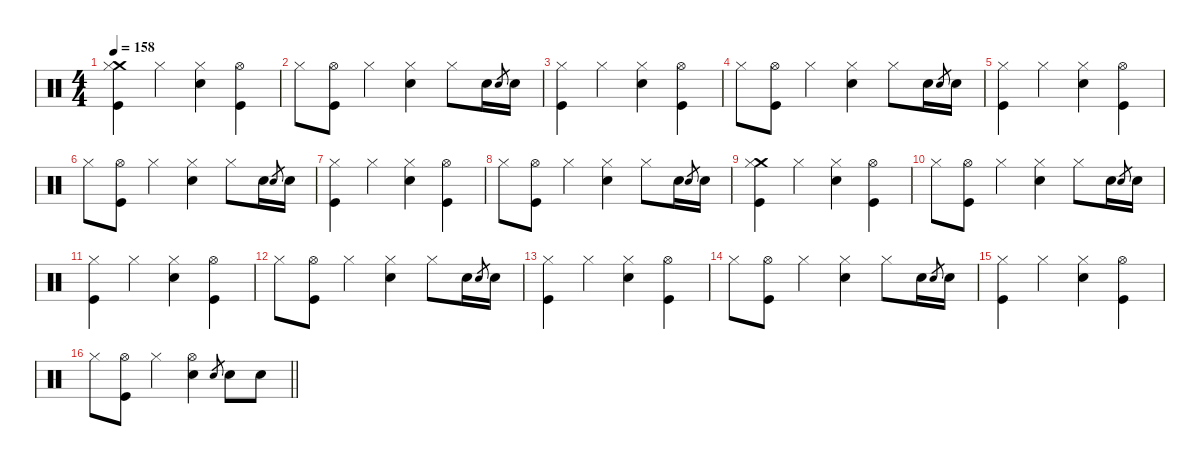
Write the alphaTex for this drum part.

\defaultSystemsLayout 4
\hideDynamics
\bracketExtendMode nobrackets
\singleTrackTrackNamePolicy hidden
\multiTrackTrackNamePolicy hidden
\firstSystemTrackNameMode fullname
\firstSystemTrackNameOrientation horizontal
\otherSystemsTrackNameOrientation horizontal
\track ("Drums" "drm.") {instrument percussion}
\staff {score}
\articulation defaults
\ts (4 4)
\tempo 158
\clef neutral
\ks aminor
("Crash medium (hit)" "Hi-Hat (closed)" "Kick (hit)").4{dy f beam Down} "Hi-Hat (closed)".4{beam Down} ("Hi-Hat (closed)" "Snare (hit) 2").4{beam Down} ("Hi-Hat (open)" "Kick (hit)").4{beam Down} |
"Hi-Hat (closed)".8{beam Down} ("Hi-Hat (open)" "Kick (hit)").8{beam Down} "Hi-Hat (closed)".4{beam Down} ("Hi-Hat (closed)" "Snare (hit) 2").4{beam Down} "Hi-Hat (closed)".8{beam Down} "Snare (hit) 2".16{dy p beam Down} "Electric Snare (hit)".8{gr beam Up} "Snare (hit) 2".16{beam Down} |
("Hi-Hat (closed)" "Kick (hit)").4{dy f beam Down} "Hi-Hat (closed)".4{beam Down} ("Hi-Hat (closed)" "Snare (hit) 2").4{beam Down} ("Hi-Hat (open)" "Kick (hit)").4{beam Down} |
"Hi-Hat (closed)".8{beam Down} ("Hi-Hat (open)" "Kick (hit)").8{beam Down} "Hi-Hat (closed)".4{beam Down} ("Hi-Hat (closed)" "Snare (hit) 2").4{beam Down} "Hi-Hat (closed)".8{beam Down} "Snare (hit) 2".16{dy p beam Down} "Electric Snare (hit)".8{gr beam Up} "Snare (hit) 2".16{beam Down} |
("Hi-Hat (closed)" "Kick (hit)").4{dy f beam Down} "Hi-Hat (closed)".4{beam Down} ("Hi-Hat (closed)" "Snare (hit) 2").4{beam Down} ("Hi-Hat (open)" "Kick (hit)").4{beam Down} |
"Hi-Hat (closed)".8{beam Down} ("Hi-Hat (open)" "Kick (hit)").8{beam Down} "Hi-Hat (closed)".4{beam Down} ("Hi-Hat (closed)" "Snare (hit) 2").4{beam Down} "Hi-Hat (closed)".8{beam Down} "Snare (hit) 2".16{dy p beam Down} "Electric Snare (hit)".8{gr beam Up} "Snare (hit) 2".16{beam Down} |
("Hi-Hat (closed)" "Kick (hit)").4{dy f beam Down} "Hi-Hat (closed)".4{beam Down} ("Hi-Hat (closed)" "Snare (hit) 2").4{beam Down} ("Hi-Hat (open)" "Kick (hit)").4{beam Down} |
"Hi-Hat (closed)".8{beam Down} ("Hi-Hat (open)" "Kick (hit)").8{beam Down} "Hi-Hat (closed)".4{beam Down} ("Hi-Hat (closed)" "Snare (hit) 2").4{beam Down} "Hi-Hat (closed)".8{beam Down} "Snare (hit) 2".16{dy p beam Down} "Electric Snare (hit)".8{gr beam Up} "Snare (hit) 2".16{beam Down} |
("Crash medium (hit)" "Hi-Hat (closed)" "Kick (hit)").4{dy f beam Down} "Hi-Hat (closed)".4{beam Down} ("Hi-Hat (closed)" "Snare (hit) 2").4{beam Down} ("Hi-Hat (open)" "Kick (hit)").4{beam Down} |
"Hi-Hat (closed)".8{beam Down} ("Hi-Hat (open)" "Kick (hit)").8{beam Down} "Hi-Hat (closed)".4{beam Down} ("Hi-Hat (closed)" "Snare (hit) 2").4{beam Down} "Hi-Hat (closed)".8{beam Down} "Snare (hit) 2".16{dy p beam Down} "Electric Snare (hit)".8{gr beam Up} "Snare (hit) 2".16{beam Down} |
("Hi-Hat (closed)" "Kick (hit)").4{dy f beam Down} "Hi-Hat (closed)".4{beam Down} ("Hi-Hat (closed)" "Snare (hit) 2").4{beam Down} ("Hi-Hat (open)" "Kick (hit)").4{beam Down} |
"Hi-Hat (closed)".8{beam Down} ("Hi-Hat (open)" "Kick (hit)").8{beam Down} "Hi-Hat (closed)".4{beam Down} ("Hi-Hat (closed)" "Snare (hit) 2").4{beam Down} "Hi-Hat (closed)".8{beam Down} "Snare (hit) 2".16{dy p beam Down} "Electric Snare (hit)".8{gr beam Up} "Snare (hit) 2".16{beam Down} |
("Hi-Hat (closed)" "Kick (hit)").4{dy f beam Down} "Hi-Hat (closed)".4{beam Down} ("Hi-Hat (closed)" "Snare (hit) 2").4{beam Down} ("Hi-Hat (open)" "Kick (hit)").4{beam Down} |
"Hi-Hat (closed)".8{beam Down} ("Hi-Hat (open)" "Kick (hit)").8{beam Down} "Hi-Hat (closed)".4{beam Down} ("Hi-Hat (closed)" "Snare (hit) 2").4{beam Down} "Hi-Hat (closed)".8{beam Down} "Snare (hit) 2".16{dy p beam Down} "Electric Snare (hit)".8{gr beam Up} "Snare (hit) 2".16{beam Down} |
("Hi-Hat (closed)" "Kick (hit)").4{dy f beam Down} "Hi-Hat (closed)".4{beam Down} ("Hi-Hat (closed)" "Snare (hit) 2").4{beam Down} ("Hi-Hat (open)" "Kick (hit)").4{beam Down} |
\barLineRight lightlight "Hi-Hat (closed)".8{beam Down}
("Hi-Hat (open)" "Kick (hit)").8{beam Down} "Hi-Hat (closed)".4{beam Down} ("Hi-Hat (open)" "Snare (hit) 2").4{beam Down} "Electric Snare (hit)".8{gr dy mf beam Up} "Snare (hit) 2".8{dy f beam Down} "Snare (hit) 2".8{beam Down}
